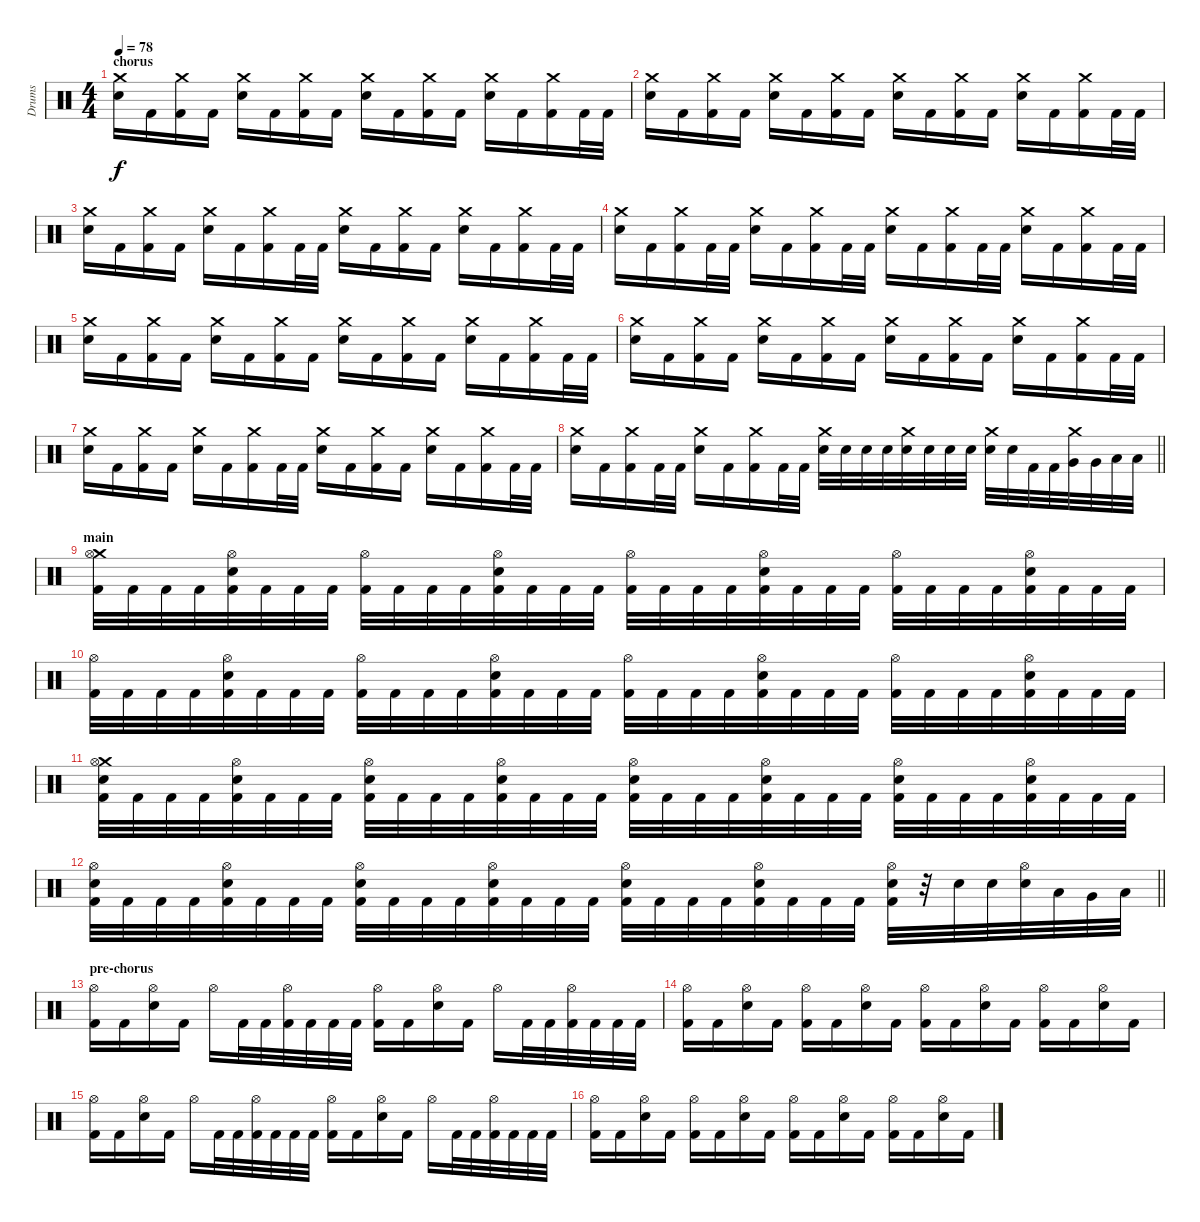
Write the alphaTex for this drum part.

\track ("Drums" "Drums") {instrument percussion}
\staff {score}
\articulation defaults
\ts (4 4)
\section ("" "chorus")
\tempo 78
\clef neutral
\ks c
("Electric Snare (hit)" "Crash medium (hit)").16{dy f} "Kick (hit) 2".16 ("Kick (hit) 2" "Crash medium (hit)").16 "Kick (hit) 2".16 ("Electric Snare (hit)" "Crash medium (hit)").16 "Kick (hit) 2".16 ("Kick (hit) 2" "Crash medium (hit)").16 "Kick (hit) 2".16 ("Electric Snare (hit)" "Crash medium (hit)").16 "Kick (hit) 2".16 ("Kick (hit) 2" "Crash medium (hit)").16 "Kick (hit) 2".16 ("Electric Snare (hit)" "Crash medium (hit)").16 "Kick (hit) 2".16 ("Kick (hit) 2" "Crash medium (hit)").16 "Kick (hit) 2".32 "Kick (hit) 2".32 |
("Electric Snare (hit)" "Crash medium (hit)").16 "Kick (hit) 2".16 ("Kick (hit) 2" "Crash medium (hit)").16 "Kick (hit) 2".16 ("Electric Snare (hit)" "Crash medium (hit)").16 "Kick (hit) 2".16 ("Kick (hit) 2" "Crash medium (hit)").16 "Kick (hit) 2".16 ("Electric Snare (hit)" "Crash medium (hit)").16 "Kick (hit) 2".16 ("Kick (hit) 2" "Crash medium (hit)").16 "Kick (hit) 2".16 ("Electric Snare (hit)" "Crash medium (hit)").16 "Kick (hit) 2".16 ("Kick (hit) 2" "Crash medium (hit)").16 "Kick (hit) 2".32 "Kick (hit) 2".32 |
("Electric Snare (hit)" "Crash medium (hit)").16 "Kick (hit) 2".16 ("Kick (hit) 2" "Crash medium (hit)").16 "Kick (hit) 2".16 ("Electric Snare (hit)" "Crash medium (hit)").16 "Kick (hit) 2".16 ("Kick (hit) 2" "Crash medium (hit)").16 "Kick (hit) 2".32 "Kick (hit) 2".32 ("Electric Snare (hit)" "Crash medium (hit)").16 "Kick (hit) 2".16 ("Kick (hit) 2" "Crash medium (hit)").16 "Kick (hit) 2".16 ("Electric Snare (hit)" "Crash medium (hit)").16 "Kick (hit) 2".16 ("Kick (hit) 2" "Crash medium (hit)").16 "Kick (hit) 2".32 "Kick (hit) 2".32 |
("Electric Snare (hit)" "Crash medium (hit)").16 "Kick (hit) 2".16 ("Kick (hit) 2" "Crash medium (hit)").16 "Kick (hit) 2".32 "Kick (hit) 2".32 ("Electric Snare (hit)" "Crash medium (hit)").16 "Kick (hit) 2".16 ("Kick (hit) 2" "Crash medium (hit)").16 "Kick (hit) 2".32 "Kick (hit) 2".32 ("Electric Snare (hit)" "Crash medium (hit)").16 "Kick (hit) 2".16 ("Kick (hit) 2" "Crash medium (hit)").16 "Kick (hit) 2".32 "Kick (hit) 2".32 ("Electric Snare (hit)" "Crash medium (hit)").16 "Kick (hit) 2".16 ("Kick (hit) 2" "Crash medium (hit)").16 "Kick (hit) 2".32 "Kick (hit) 2".32 |
("Electric Snare (hit)" "Crash medium (hit)").16 "Kick (hit) 2".16 ("Kick (hit) 2" "Crash medium (hit)").16 "Kick (hit) 2".16 ("Electric Snare (hit)" "Crash medium (hit)").16 "Kick (hit) 2".16 ("Kick (hit) 2" "Crash medium (hit)").16 "Kick (hit) 2".16 ("Electric Snare (hit)" "Crash medium (hit)").16 "Kick (hit) 2".16 ("Kick (hit) 2" "Crash medium (hit)").16 "Kick (hit) 2".16 ("Electric Snare (hit)" "Crash medium (hit)").16 "Kick (hit) 2".16 ("Kick (hit) 2" "Crash medium (hit)").16 "Kick (hit) 2".32 "Kick (hit) 2".32 |
("Electric Snare (hit)" "Crash medium (hit)").16 "Kick (hit) 2".16 ("Kick (hit) 2" "Crash medium (hit)").16 "Kick (hit) 2".16 ("Electric Snare (hit)" "Crash medium (hit)").16 "Kick (hit) 2".16 ("Kick (hit) 2" "Crash medium (hit)").16 "Kick (hit) 2".16 ("Electric Snare (hit)" "Crash medium (hit)").16 "Kick (hit) 2".16 ("Kick (hit) 2" "Crash medium (hit)").16 "Kick (hit) 2".16 ("Electric Snare (hit)" "Crash medium (hit)").16 "Kick (hit) 2".16 ("Kick (hit) 2" "Crash medium (hit)").16 "Kick (hit) 2".32 "Kick (hit) 2".32 |
("Electric Snare (hit)" "Crash medium (hit)").16 "Kick (hit) 2".16 ("Kick (hit) 2" "Crash medium (hit)").16 "Kick (hit) 2".16 ("Electric Snare (hit)" "Crash medium (hit)").16 "Kick (hit) 2".16 ("Kick (hit) 2" "Crash medium (hit)").16 "Kick (hit) 2".32 "Kick (hit) 2".32 ("Electric Snare (hit)" "Crash medium (hit)").16 "Kick (hit) 2".16 ("Kick (hit) 2" "Crash medium (hit)").16 "Kick (hit) 2".16 ("Electric Snare (hit)" "Crash medium (hit)").16 "Kick (hit) 2".16 ("Kick (hit) 2" "Crash medium (hit)").16 "Kick (hit) 2".32 "Kick (hit) 2".32 |
\barLineRight lightlight
("Electric Snare (hit)" "Crash medium (hit)").16 "Kick (hit) 2".16 ("Kick (hit) 2" "Crash medium (hit)").16 "Kick (hit) 2".32 "Kick (hit) 2".32 ("Electric Snare (hit)" "Crash medium (hit)").16 "Kick (hit) 2".16 ("Kick (hit) 2" "Crash medium (hit)").16 "Kick (hit) 2".32 "Kick (hit) 2".32 ("Electric Snare (hit)" "Crash medium (hit)").32 "Electric Snare (hit)".32 "Electric Snare (hit)".32 "Electric Snare (hit)".32 ("Electric Snare (hit)" "Crash medium (hit)").32 "Electric Snare (hit)".32 "Electric Snare (hit)".32 "Electric Snare (hit)".32 ("Electric Snare (hit)" "Crash medium (hit)").32 "Electric Snare (hit)".32 "Kick (hit) 2".32 "Kick (hit) 2".32 ("Very Low Tom (hit)" "Crash medium (hit)").32 "Very Low Tom (hit)".32 "Low Floor Tom (hit)".32 "Low Floor Tom (hit)".32 |
\section ("" "main")
("Crash medium (hit)" "Kick (hit) 2" "Hi-Hat (open)").32 "Kick (hit) 2".32 "Kick (hit) 2".32 "Kick (hit) 2".32 ("Electric Snare (hit)" "Kick (hit) 2" "Hi-Hat (open)").32 "Kick (hit) 2".32 "Kick (hit) 2".32 "Kick (hit) 2".32 ("Kick (hit) 2" "Hi-Hat (open)").32 "Kick (hit) 2".32 "Kick (hit) 2".32 "Kick (hit) 2".32 ("Electric Snare (hit)" "Kick (hit) 2" "Hi-Hat (open)").32 "Kick (hit) 2".32 "Kick (hit) 2".32 "Kick (hit) 2".32 ("Kick (hit) 2" "Hi-Hat (open)").32 "Kick (hit) 2".32 "Kick (hit) 2".32 "Kick (hit) 2".32 ("Electric Snare (hit)" "Kick (hit) 2" "Hi-Hat (open)").32 "Kick (hit) 2".32 "Kick (hit) 2".32 "Kick (hit) 2".32 ("Kick (hit) 2" "Hi-Hat (open)").32 "Kick (hit) 2".32 "Kick (hit) 2".32 "Kick (hit) 2".32 ("Electric Snare (hit)" "Kick (hit) 2" "Hi-Hat (open)").32 "Kick (hit) 2".32 "Kick (hit) 2".32 "Kick (hit) 2".32 |
("Kick (hit) 2" "Hi-Hat (open)").32 "Kick (hit) 2".32 "Kick (hit) 2".32 "Kick (hit) 2".32 ("Electric Snare (hit)" "Kick (hit) 2" "Hi-Hat (open)").32 "Kick (hit) 2".32 "Kick (hit) 2".32 "Kick (hit) 2".32 ("Kick (hit) 2" "Hi-Hat (open)").32 "Kick (hit) 2".32 "Kick (hit) 2".32 "Kick (hit) 2".32 ("Electric Snare (hit)" "Kick (hit) 2" "Hi-Hat (open)").32 "Kick (hit) 2".32 "Kick (hit) 2".32 "Kick (hit) 2".32 ("Kick (hit) 2" "Hi-Hat (open)").32 "Kick (hit) 2".32 "Kick (hit) 2".32 "Kick (hit) 2".32 ("Electric Snare (hit)" "Kick (hit) 2" "Hi-Hat (open)").32 "Kick (hit) 2".32 "Kick (hit) 2".32 "Kick (hit) 2".32 ("Kick (hit) 2" "Hi-Hat (open)").32 "Kick (hit) 2".32 "Kick (hit) 2".32 "Kick (hit) 2".32 ("Electric Snare (hit)" "Kick (hit) 2" "Hi-Hat (open)").32 "Kick (hit) 2".32 "Kick (hit) 2".32 "Kick (hit) 2".32 |
("Electric Snare (hit)" "Crash medium (hit)" "Kick (hit) 2" "Hi-Hat (open)").32 "Kick (hit) 2".32 "Kick (hit) 2".32 "Kick (hit) 2".32 ("Electric Snare (hit)" "Kick (hit) 2" "Hi-Hat (open)").32 "Kick (hit) 2".32 "Kick (hit) 2".32 "Kick (hit) 2".32 ("Electric Snare (hit)" "Kick (hit) 2" "Hi-Hat (open)").32 "Kick (hit) 2".32 "Kick (hit) 2".32 "Kick (hit) 2".32 ("Electric Snare (hit)" "Kick (hit) 2" "Hi-Hat (open)").32 "Kick (hit) 2".32 "Kick (hit) 2".32 "Kick (hit) 2".32 ("Electric Snare (hit)" "Kick (hit) 2" "Hi-Hat (open)").32 "Kick (hit) 2".32 "Kick (hit) 2".32 "Kick (hit) 2".32 ("Electric Snare (hit)" "Kick (hit) 2" "Hi-Hat (open)").32 "Kick (hit) 2".32 "Kick (hit) 2".32 "Kick (hit) 2".32 ("Electric Snare (hit)" "Kick (hit) 2" "Hi-Hat (open)").32 "Kick (hit) 2".32 "Kick (hit) 2".32 "Kick (hit) 2".32 ("Electric Snare (hit)" "Kick (hit) 2" "Hi-Hat (open)").32 "Kick (hit) 2".32 "Kick (hit) 2".32 "Kick (hit) 2".32 |
\barLineRight lightlight
("Electric Snare (hit)" "Kick (hit) 2" "Hi-Hat (open)").32 "Kick (hit) 2".32 "Kick (hit) 2".32 "Kick (hit) 2".32 ("Electric Snare (hit)" "Kick (hit) 2" "Hi-Hat (open)").32 "Kick (hit) 2".32 "Kick (hit) 2".32 "Kick (hit) 2".32 ("Electric Snare (hit)" "Kick (hit) 2" "Hi-Hat (open)").32 "Kick (hit) 2".32 "Kick (hit) 2".32 "Kick (hit) 2".32 ("Electric Snare (hit)" "Kick (hit) 2" "Hi-Hat (open)").32 "Kick (hit) 2".32 "Kick (hit) 2".32 "Kick (hit) 2".32 ("Electric Snare (hit)" "Kick (hit) 2" "Hi-Hat (open)").32 "Kick (hit) 2".32 "Kick (hit) 2".32 "Kick (hit) 2".32 ("Electric Snare (hit)" "Kick (hit) 2" "Hi-Hat (open)").32 "Kick (hit) 2".32 "Kick (hit) 2".32 "Kick (hit) 2".32 ("Electric Snare (hit)" "Kick (hit) 2" "Hi-Hat (open)").32 r.32 "Electric Snare (hit)".32 "Electric Snare (hit)".32 ("Electric Snare (hit)" "Hi-Hat (open)").32 "Low Tom (hit)".32 "Very Low Tom (hit)".32 "Low Floor Tom (hit)".32 |
\section ("" "pre-chorus")
("Kick (hit) 2" "Hi-Hat (open)").16 "Kick (hit) 2".16 ("Electric Snare (hit)" "Hi-Hat (open)").16 "Kick (hit) 2".16 "Hi-Hat (open)".16 "Kick (hit) 2".32 "Kick (hit) 2".32 ("Kick (hit) 2" "Hi-Hat (open)").32 "Kick (hit) 2".32 "Kick (hit) 2".32 "Kick (hit) 2".32 ("Kick (hit) 2" "Hi-Hat (open)").16 "Kick (hit) 2".16 ("Electric Snare (hit)" "Hi-Hat (open)").16 "Kick (hit) 2".16 "Hi-Hat (open)".16 "Kick (hit) 2".32 "Kick (hit) 2".32 ("Kick (hit) 2" "Hi-Hat (open)").32 "Kick (hit) 2".32 "Kick (hit) 2".32 "Kick (hit) 2".32 |
("Kick (hit) 2" "Hi-Hat (open)").16 "Kick (hit) 2".16 ("Electric Snare (hit)" "Hi-Hat (open)").16 "Kick (hit) 2".16 ("Kick (hit) 2" "Hi-Hat (open)").16 "Kick (hit) 2".16 ("Electric Snare (hit)" "Hi-Hat (open)").16 "Kick (hit) 2".16 ("Kick (hit) 2" "Hi-Hat (open)").16 "Kick (hit) 2".16 ("Electric Snare (hit)" "Hi-Hat (open)").16 "Kick (hit) 2".16 ("Kick (hit) 2" "Hi-Hat (open)").16 "Kick (hit) 2".16 ("Electric Snare (hit)" "Hi-Hat (open)").16 "Kick (hit) 2".16 |
("Kick (hit) 2" "Hi-Hat (open)").16 "Kick (hit) 2".16 ("Electric Snare (hit)" "Hi-Hat (open)").16 "Kick (hit) 2".16 "Hi-Hat (open)".16 "Kick (hit) 2".32 "Kick (hit) 2".32 ("Kick (hit) 2" "Hi-Hat (open)").32 "Kick (hit) 2".32 "Kick (hit) 2".32 "Kick (hit) 2".32 ("Kick (hit) 2" "Hi-Hat (open)").16 "Kick (hit) 2".16 ("Electric Snare (hit)" "Hi-Hat (open)").16 "Kick (hit) 2".16 "Hi-Hat (open)".16 "Kick (hit) 2".32 "Kick (hit) 2".32 ("Kick (hit) 2" "Hi-Hat (open)").32 "Kick (hit) 2".32 "Kick (hit) 2".32 "Kick (hit) 2".32 |
("Kick (hit) 2" "Hi-Hat (open)").16 "Kick (hit) 2".16 ("Electric Snare (hit)" "Hi-Hat (open)").16 "Kick (hit) 2".16 ("Kick (hit) 2" "Hi-Hat (open)").16 "Kick (hit) 2".16 ("Electric Snare (hit)" "Hi-Hat (open)").16 "Kick (hit) 2".16 ("Kick (hit) 2" "Hi-Hat (open)").16 "Kick (hit) 2".16 ("Electric Snare (hit)" "Hi-Hat (open)").16 "Kick (hit) 2".16 ("Kick (hit) 2" "Hi-Hat (open)").16 "Kick (hit) 2".16 ("Electric Snare (hit)" "Hi-Hat (open)").16 "Kick (hit) 2".16
